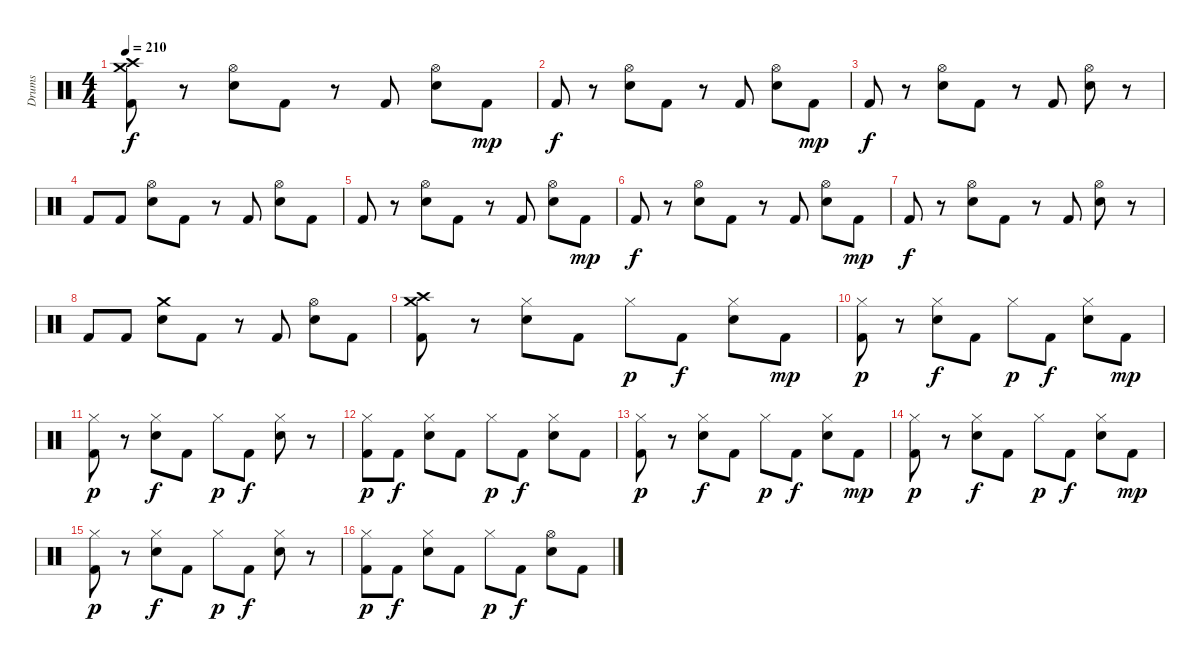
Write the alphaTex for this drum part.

\track ("Drums" "Drums") {instrument percussion}
\staff {score}
\articulation defaults
\ts (4 4)
\tempo 210
\clef neutral
\ks c
("Crash high (hit)" "Crash medium (hit)" "Kick (hit) 2").8{dy f} r.8 ("Hi-Hat (open)" "Electric Snare (hit)").8 "Kick (hit) 2".8 r.8 "Kick (hit) 2".8 ("Hi-Hat (open)" "Electric Snare (hit)").8 "Kick (hit) 2".8{dy mp} |
"Kick (hit) 2".8{dy f} r.8 ("Hi-Hat (open)" "Electric Snare (hit)").8 "Kick (hit) 2".8 r.8 "Kick (hit) 2".8 ("Hi-Hat (open)" "Electric Snare (hit)").8 "Kick (hit) 2".8{dy mp} |
"Kick (hit) 2".8{dy f} r.8 ("Hi-Hat (open)" "Electric Snare (hit)").8 "Kick (hit) 2".8 r.8 "Kick (hit) 2".8 ("Hi-Hat (open)" "Electric Snare (hit)").8 r.8 |
"Kick (hit) 2".8 "Kick (hit) 2".8 ("Hi-Hat (open)" "Electric Snare (hit)").8 "Kick (hit) 2".8 r.8 "Kick (hit) 2".8 ("Hi-Hat (open)" "Electric Snare (hit)").8 "Kick (hit) 2".8 |
"Kick (hit) 2".8 r.8 ("Hi-Hat (open)" "Electric Snare (hit)").8 "Kick (hit) 2".8 r.8 "Kick (hit) 2".8 ("Hi-Hat (open)" "Electric Snare (hit)").8 "Kick (hit) 2".8{dy mp} |
"Kick (hit) 2".8{dy f} r.8 ("Hi-Hat (open)" "Electric Snare (hit)").8 "Kick (hit) 2".8 r.8 "Kick (hit) 2".8 ("Hi-Hat (open)" "Electric Snare (hit)").8 "Kick (hit) 2".8{dy mp} |
"Kick (hit) 2".8{dy f} r.8 ("Hi-Hat (open)" "Electric Snare (hit)").8 "Kick (hit) 2".8 r.8 "Kick (hit) 2".8 ("Hi-Hat (open)" "Electric Snare (hit)").8 r.8 |
"Kick (hit) 2".8 "Kick (hit) 2".8 ("Crash medium (hit)" "Electric Snare (hit)").8 "Kick (hit) 2".8 r.8 "Kick (hit) 2".8 ("Hi-Hat (open)" "Electric Snare (hit)").8 "Kick (hit) 2".8 |
("Crash high (hit)" "Crash medium (hit)" "Kick (hit) 2").8 r.8 ("Hi-Hat (closed)" "Electric Snare (hit)").8 "Kick (hit) 2".8 "Hi-Hat (closed)".8{dy p} "Kick (hit) 2".8{dy f} ("Hi-Hat (closed)" "Electric Snare (hit)").8 "Kick (hit) 2".8{dy mp} |
("Hi-Hat (closed)" "Kick (hit) 2").8{dy p} r.8 ("Hi-Hat (closed)" "Electric Snare (hit)").8{dy f} "Kick (hit) 2".8 "Hi-Hat (closed)".8{dy p} "Kick (hit) 2".8{dy f} ("Hi-Hat (closed)" "Electric Snare (hit)").8 "Kick (hit) 2".8{dy mp} |
("Hi-Hat (closed)" "Kick (hit) 2").8{dy p} r.8 ("Hi-Hat (closed)" "Electric Snare (hit)").8{dy f} "Kick (hit) 2".8 "Hi-Hat (closed)".8{dy p} "Kick (hit) 2".8{dy f} ("Hi-Hat (closed)" "Electric Snare (hit)").8 r.8 |
("Hi-Hat (closed)" "Kick (hit) 2").8{dy p} "Kick (hit) 2".8{dy f} ("Hi-Hat (closed)" "Electric Snare (hit)").8 "Kick (hit) 2".8 "Hi-Hat (closed)".8{dy p} "Kick (hit) 2".8{dy f} ("Hi-Hat (closed)" "Electric Snare (hit)").8 "Kick (hit) 2".8 |
("Hi-Hat (closed)" "Kick (hit) 2").8{dy p} r.8 ("Hi-Hat (closed)" "Electric Snare (hit)").8{dy f} "Kick (hit) 2".8 "Hi-Hat (closed)".8{dy p} "Kick (hit) 2".8{dy f} ("Hi-Hat (closed)" "Electric Snare (hit)").8 "Kick (hit) 2".8{dy mp} |
("Hi-Hat (closed)" "Kick (hit) 2").8{dy p} r.8 ("Hi-Hat (closed)" "Electric Snare (hit)").8{dy f} "Kick (hit) 2".8 "Hi-Hat (closed)".8{dy p} "Kick (hit) 2".8{dy f} ("Hi-Hat (closed)" "Electric Snare (hit)").8 "Kick (hit) 2".8{dy mp} |
("Hi-Hat (closed)" "Kick (hit) 2").8{dy p} r.8 ("Hi-Hat (closed)" "Electric Snare (hit)").8{dy f} "Kick (hit) 2".8 "Hi-Hat (closed)".8{dy p} "Kick (hit) 2".8{dy f} ("Hi-Hat (closed)" "Electric Snare (hit)").8 r.8 |
("Hi-Hat (closed)" "Kick (hit) 2").8{dy p} "Kick (hit) 2".8{dy f} ("Hi-Hat (closed)" "Electric Snare (hit)").8 "Kick (hit) 2".8 "Hi-Hat (closed)".8{dy p} "Kick (hit) 2".8{dy f} ("Hi-Hat (open)" "Electric Snare (hit)").8 "Kick (hit) 2".8
